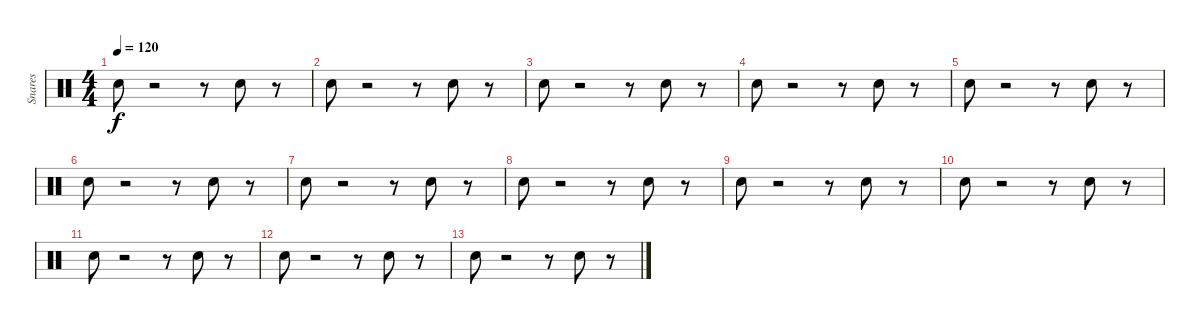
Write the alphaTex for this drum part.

\track ("Snares              " "Snares    ") {instrument percussion}
\staff {score}
\articulation defaults
\ts (4 4)
\tempo 120
\clef neutral
\ks c "Snare (hit) 2".8{dy f}
r.2 r.8 "Snare (hit) 2".8 r.8 |
"Snare (hit) 2".8 r.2 r.8 "Snare (hit) 2".8 r.8 |
"Snare (hit) 2".8 r.2 r.8 "Snare (hit) 2".8 r.8 |
"Snare (hit) 2".8{volume 12} r.2 r.8 "Snare (hit) 2".8{volume 11} r.8 |
"Snare (hit) 2".8{volume 11} r.2 r.8 "Snare (hit) 2".8{volume 10} r.8 |
"Snare (hit) 2".8{volume 10} r.2 r.8 "Snare (hit) 2".8{volume 9} r.8 |
"Snare (hit) 2".8{volume 9} r.2 r.8 "Snare (hit) 2".8{volume 8} r.8 |
"Snare (hit) 2".8{volume 7} r.2 r.8 "Snare (hit) 2".8{volume 6} r.8 |
"Snare (hit) 2".8{volume 6} r.2 r.8 "Snare (hit) 2".8{volume 5} r.8 |
"Snare (hit) 2".8{volume 5} r.2 r.8 "Snare (hit) 2".8{volume 4} r.8 |
"Snare (hit) 2".8{volume 4} r.2 r.8 "Snare (hit) 2".8{volume 3} r.8 |
"Snare (hit) 2".8{volume 2} r.2 r.8 "Snare (hit) 2".8{volume 2} r.8 |
"Snare (hit) 2".8{volume 1} r.2 r.8 "Snare (hit) 2".8{volume 0} r.8
